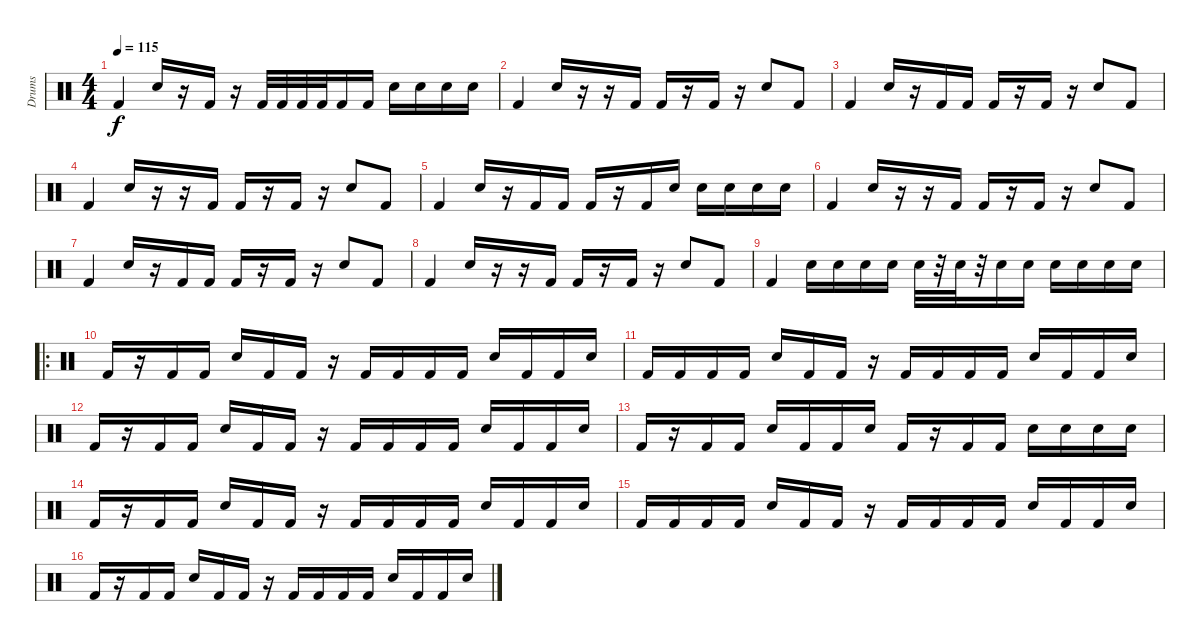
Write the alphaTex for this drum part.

\track ("Drums" "Drums") {instrument percussion}
\staff {score}
\articulation defaults
\ts (4 4)
\tempo 115
\clef neutral
\ks c "Kick (hit) 2".4{dy f} "Snare (hit) 2".16
r.16 "Kick (hit) 2".16 r.16 "Kick (hit) 2".32 "Kick (hit) 2".32 "Kick (hit) 2".32 "Kick (hit) 2".32 "Kick (hit) 2".16 "Kick (hit) 2".16 "Snare (hit) 2".16 "Snare (hit) 2".16 "Snare (hit) 2".16 "Snare (hit) 2".16 |
"Kick (hit) 2".4 "Snare (hit) 2".16 r.16 r.16 "Kick (hit) 2".16 "Kick (hit) 2".16 r.16 "Kick (hit) 2".16 r.16 "Snare (hit) 2".8 "Kick (hit) 2".8 |
"Kick (hit) 2".4 "Snare (hit) 2".16 r.16 "Kick (hit) 2".16 "Kick (hit) 2".16 "Kick (hit) 2".16 r.16 "Kick (hit) 2".16 r.16 "Snare (hit) 2".8 "Kick (hit) 2".8 |
"Kick (hit) 2".4 "Snare (hit) 2".16 r.16 r.16 "Kick (hit) 2".16 "Kick (hit) 2".16 r.16 "Kick (hit) 2".16 r.16 "Snare (hit) 2".8 "Kick (hit) 2".8 |
"Kick (hit) 2".4 "Snare (hit) 2".16 r.16 "Kick (hit) 2".16 "Kick (hit) 2".16 "Kick (hit) 2".16 r.16 "Kick (hit) 2".16 "Snare (hit) 2".16 "Snare (hit) 2".16 "Snare (hit) 2".16 "Snare (hit) 2".16 "Snare (hit) 2".16 |
"Kick (hit) 2".4 "Snare (hit) 2".16 r.16 r.16 "Kick (hit) 2".16 "Kick (hit) 2".16 r.16 "Kick (hit) 2".16 r.16 "Snare (hit) 2".8 "Kick (hit) 2".8 |
"Kick (hit) 2".4 "Snare (hit) 2".16 r.16 "Kick (hit) 2".16 "Kick (hit) 2".16 "Kick (hit) 2".16 r.16 "Kick (hit) 2".16 r.16 "Snare (hit) 2".8 "Kick (hit) 2".8 |
"Kick (hit) 2".4 "Snare (hit) 2".16 r.16 r.16 "Kick (hit) 2".16 "Kick (hit) 2".16 r.16 "Kick (hit) 2".16 r.16 "Snare (hit) 2".8 "Kick (hit) 2".8 |
"Kick (hit) 2".4 "Snare (hit) 2".16 "Snare (hit) 2".16 "Snare (hit) 2".16 "Snare (hit) 2".16 "Snare (hit) 2".32 r.32 "Snare (hit) 2".32 r.32 "Snare (hit) 2".16 "Snare (hit) 2".16 "Snare (hit) 2".16 "Snare (hit) 2".16 "Snare (hit) 2".16 "Snare (hit) 2".16 |
\ro "Kick (hit) 2".16
r.16 "Kick (hit) 2".16 "Kick (hit) 2".16 "Snare (hit) 2".16 "Kick (hit) 2".16 "Kick (hit) 2".16 r.16 "Kick (hit) 2".16 "Kick (hit) 2".16 "Kick (hit) 2".16 "Kick (hit) 2".16 "Snare (hit) 2".16 "Kick (hit) 2".16 "Kick (hit) 2".16 "Snare (hit) 2".16 |
"Kick (hit) 2".16 "Kick (hit) 2".16 "Kick (hit) 2".16 "Kick (hit) 2".16 "Snare (hit) 2".16 "Kick (hit) 2".16 "Kick (hit) 2".16 r.16 "Kick (hit) 2".16 "Kick (hit) 2".16 "Kick (hit) 2".16 "Kick (hit) 2".16 "Snare (hit) 2".16 "Kick (hit) 2".16 "Kick (hit) 2".16 "Snare (hit) 2".16 |
"Kick (hit) 2".16 r.16 "Kick (hit) 2".16 "Kick (hit) 2".16 "Snare (hit) 2".16 "Kick (hit) 2".16 "Kick (hit) 2".16 r.16 "Kick (hit) 2".16 "Kick (hit) 2".16 "Kick (hit) 2".16 "Kick (hit) 2".16 "Snare (hit) 2".16 "Kick (hit) 2".16 "Kick (hit) 2".16 "Snare (hit) 2".16 |
"Kick (hit) 2".16 r.16 "Kick (hit) 2".16 "Kick (hit) 2".16 "Snare (hit) 2".16 "Kick (hit) 2".16 "Kick (hit) 2".16 "Snare (hit) 2".16 "Kick (hit) 2".16 r.16 "Kick (hit) 2".16 "Kick (hit) 2".16 "Snare (hit) 2".16 "Snare (hit) 2".16 "Snare (hit) 2".16 "Snare (hit) 2".16 |
"Kick (hit) 2".16 r.16 "Kick (hit) 2".16 "Kick (hit) 2".16 "Snare (hit) 2".16 "Kick (hit) 2".16 "Kick (hit) 2".16 r.16 "Kick (hit) 2".16 "Kick (hit) 2".16 "Kick (hit) 2".16 "Kick (hit) 2".16 "Snare (hit) 2".16 "Kick (hit) 2".16 "Kick (hit) 2".16 "Snare (hit) 2".16 |
"Kick (hit) 2".16 "Kick (hit) 2".16 "Kick (hit) 2".16 "Kick (hit) 2".16 "Snare (hit) 2".16 "Kick (hit) 2".16 "Kick (hit) 2".16 r.16 "Kick (hit) 2".16 "Kick (hit) 2".16 "Kick (hit) 2".16 "Kick (hit) 2".16 "Snare (hit) 2".16 "Kick (hit) 2".16 "Kick (hit) 2".16 "Snare (hit) 2".16 |
"Kick (hit) 2".16 r.16 "Kick (hit) 2".16 "Kick (hit) 2".16 "Snare (hit) 2".16 "Kick (hit) 2".16 "Kick (hit) 2".16 r.16 "Kick (hit) 2".16 "Kick (hit) 2".16 "Kick (hit) 2".16 "Kick (hit) 2".16 "Snare (hit) 2".16 "Kick (hit) 2".16 "Kick (hit) 2".16 "Snare (hit) 2".16
